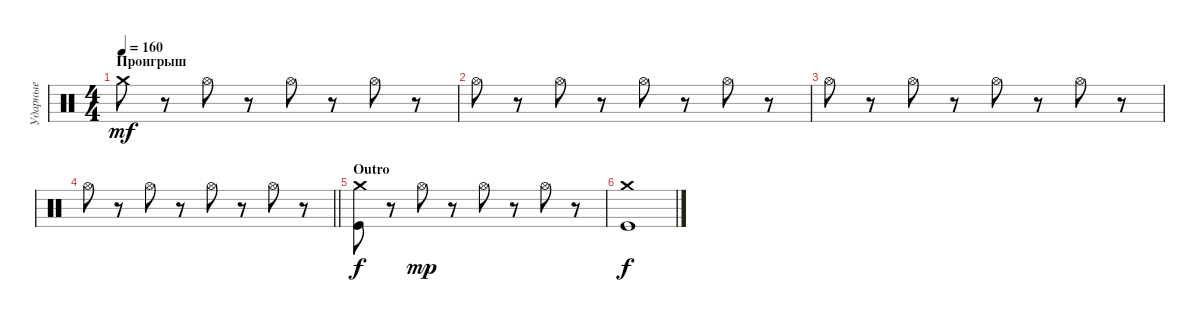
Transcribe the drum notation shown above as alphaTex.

\track ("Ударные" "Ударные") {instrument percussion}
\staff {score}
\articulation defaults
\ts (4 4)
\section ("" "Проигрыш")
\tempo 160
\clef neutral
\ks c "Crash medium (hit)".8{dy mf}
r.8 "Hi-Hat (open)".8 r.8 "Hi-Hat (open)".8 r.8 "Hi-Hat (open)".8 r.8 |
"Hi-Hat (open)".8 r.8 "Hi-Hat (open)".8 r.8 "Hi-Hat (open)".8 r.8 "Hi-Hat (open)".8 r.8 |
"Hi-Hat (open)".8 r.8 "Hi-Hat (open)".8 r.8 "Hi-Hat (open)".8 r.8 "Hi-Hat (open)".8 r.8 |
\barLineRight lightlight "Hi-Hat (open)".8
r.8 "Hi-Hat (open)".8 r.8 "Hi-Hat (open)".8 r.8 "Hi-Hat (open)".8 r.8 |
\section ("" "Outro")
("Crash medium (hit)" "Kick (hit)").8{dy f} r.8 "Hi-Hat (open)".8{dy mp} r.8 "Hi-Hat (open)".8 r.8 "Hi-Hat (open)".8 r.8 |
("Crash medium (hit)" "Kick (hit)").1{dy f}
